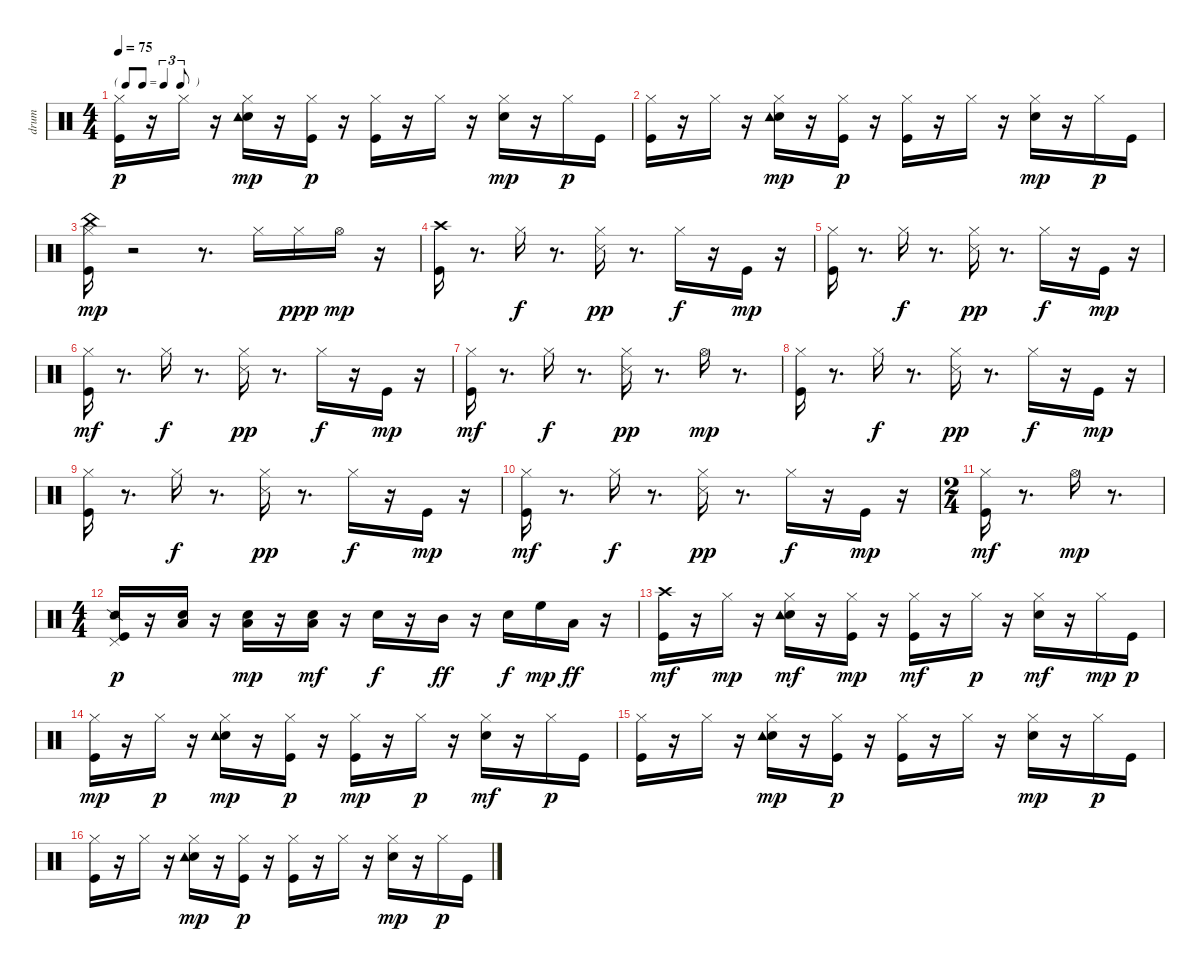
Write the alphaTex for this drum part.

\track ("drum" "drum") {instrument percussion}
\staff {score}
\articulation defaults
\ts (4 4)
\tf triplet8th
\tempo 75
\clef neutral
\ks c
("Hi-Hat (closed)" "Kick (hit)").16{dy p} r.16 "Hi-Hat (closed)".16 r.16 ("Hi-Hat (closed)" "Snare (hit) 2" "Tambourine (hit)").16{dy mp} r.16 ("Hi-Hat (closed)" "Kick (hit)").16{dy p} r.16 ("Hi-Hat (closed)" "Kick (hit)").16 r.16 "Hi-Hat (closed)".16 r.16 ("Hi-Hat (closed)" "Snare (hit) 2").16{dy mp} r.16 "Hi-Hat (closed)".16{dy p} "Kick (hit)".16 |
("Hi-Hat (closed)" "Kick (hit)").16 r.16 "Hi-Hat (closed)".16 r.16 ("Hi-Hat (closed)" "Snare (hit) 2" "Tambourine (hit)").16{dy mp} r.16 ("Hi-Hat (closed)" "Kick (hit)").16{dy p} r.16 ("Hi-Hat (closed)" "Kick (hit)").16 r.16 "Hi-Hat (closed)".16 r.16 ("Hi-Hat (closed)" "Snare (hit) 2").16{dy mp} r.16 "Hi-Hat (closed)".16{dy p} "Kick (hit)".16 |
("Hi-Hat (closed)" "China (hit)" "Kick (hit)").16{dy mp} r.2 r.8{d} "Hi-Hat (closed)".16 "Hi-Hat (closed)".16{dy ppp} "Hi-Hat (open)".16{dy mp} r.16 |
("Crash high (hit)" "Kick (hit)").16 r.8{d} "Hi-Hat (closed)".16{dy f} r.8{d} ("Hi-Hat (closed)" "Snare (side stick) 3").16{dy pp} r.8{d} "Hi-Hat (closed)".16{dy f} r.16 "Kick (hit)".16{dy mp} r.16 |
("Hi-Hat (closed)" "Kick (hit)").16 r.8{d} "Hi-Hat (closed)".16{dy f} r.8{d} ("Hi-Hat (closed)" "Snare (side stick) 3").16{dy pp} r.8{d} "Hi-Hat (closed)".16{dy f} r.16 "Kick (hit)".16{dy mp} r.16 |
("Hi-Hat (closed)" "Kick (hit)").16{dy mf} r.8{d} "Hi-Hat (closed)".16{dy f} r.8{d} ("Hi-Hat (closed)" "Snare (side stick) 3").16{dy pp} r.8{d} "Hi-Hat (closed)".16{dy f} r.16 "Kick (hit)".16{dy mp} r.16 |
("Hi-Hat (closed)" "Kick (hit)").16{dy mf} r.8{d} "Hi-Hat (closed)".16{dy f} r.8{d} ("Hi-Hat (closed)" "Snare (side stick) 3").16{dy pp} r.8{d} "Hi-Hat (open)".16{dy mp} r.8{d} |
("Hi-Hat (closed)" "Kick (hit)").16 r.8{d} "Hi-Hat (closed)".16{dy f} r.8{d} ("Hi-Hat (closed)" "Snare (side stick) 3").16{dy pp} r.8{d} "Hi-Hat (closed)".16{dy f} r.16 "Kick (hit)".16{dy mp} r.16 |
("Hi-Hat (closed)" "Kick (hit)").16 r.8{d} "Hi-Hat (closed)".16{dy f} r.8{d} ("Hi-Hat (closed)" "Snare (side stick) 3").16{dy pp} r.8{d} "Hi-Hat (closed)".16{dy f} r.16 "Kick (hit)".16{dy mp} r.16 |
("Hi-Hat (closed)" "Kick (hit)").16{dy mf} r.8{d} "Hi-Hat (closed)".16{dy f} r.8{d} ("Hi-Hat (closed)" "Snare (side stick) 3").16{dy pp} r.8{d} "Hi-Hat (closed)".16{dy f} r.16 "Kick (hit)".16{dy mp} r.16 |
\ts (2 4)
("Hi-Hat (closed)" "Kick (hit)").16{dy mf} r.8{d} "Hi-Hat (open)".16{dy mp} r.8{d} |
\ts (4 4)
("Snare (side stick) 2" "Kick (hit)" "Pedal Hi-Hat (hit)").16{dy p} r.16 ("Snare (hit) 2" "Low Floor Tom (hit)").16 r.16 ("Snare (hit) 2" "Low Floor Tom (hit)").16{dy mp} r.16 ("Snare (hit) 2" "Low Floor Tom (hit)").16{dy mf} r.16 "Snare (hit) 2".16{dy f} r.16 "Mid Tom (hit)".16{dy ff} r.16 "Snare (hit) 2".16{dy f} "High Floor Tom (hit)".16{dy mp} "Low Tom (hit)".16{dy ff} r.16 |
("Crash high (hit)" "Kick (hit)").16{dy mf} r.16 "Hi-Hat (closed)".16{dy mp} r.16 ("Hi-Hat (closed)" "Snare (hit) 2" "Tambourine (hit)").16{dy mf} r.16 ("Hi-Hat (closed)" "Kick (hit)").16{dy mp} r.16 ("Hi-Hat (closed)" "Kick (hit)").16{dy mf} r.16 "Hi-Hat (closed)".16{dy p} r.16 ("Hi-Hat (closed)" "Snare (hit) 2").16{dy mf} r.16 "Hi-Hat (closed)".16{dy mp} "Kick (hit)".16{dy p} |
("Hi-Hat (closed)" "Kick (hit)").16{dy mp} r.16 "Hi-Hat (closed)".16{dy p} r.16 ("Hi-Hat (closed)" "Snare (hit) 2" "Tambourine (hit)").16{dy mp} r.16 ("Hi-Hat (closed)" "Kick (hit)").16{dy p} r.16 ("Hi-Hat (closed)" "Kick (hit)").16{dy mp} r.16 "Hi-Hat (closed)".16{dy p} r.16 ("Hi-Hat (closed)" "Snare (hit) 2").16{dy mf} r.16 "Hi-Hat (closed)".16{dy p} "Kick (hit)".16 |
("Hi-Hat (closed)" "Kick (hit)").16 r.16 "Hi-Hat (closed)".16 r.16 ("Hi-Hat (closed)" "Snare (hit) 2" "Tambourine (hit)").16{dy mp} r.16 ("Hi-Hat (closed)" "Kick (hit)").16{dy p} r.16 ("Hi-Hat (closed)" "Kick (hit)").16 r.16 "Hi-Hat (closed)".16 r.16 ("Hi-Hat (closed)" "Snare (hit) 2").16{dy mp} r.16 "Hi-Hat (closed)".16{dy p} "Kick (hit)".16 |
("Hi-Hat (closed)" "Kick (hit)").16 r.16 "Hi-Hat (closed)".16 r.16 ("Hi-Hat (closed)" "Snare (hit) 2" "Tambourine (hit)").16{dy mp} r.16 ("Hi-Hat (closed)" "Kick (hit)").16{dy p} r.16 ("Hi-Hat (closed)" "Kick (hit)").16 r.16 "Hi-Hat (closed)".16 r.16 ("Hi-Hat (closed)" "Snare (hit) 2").16{dy mp} r.16 "Hi-Hat (closed)".16{dy p} "Kick (hit)".16
